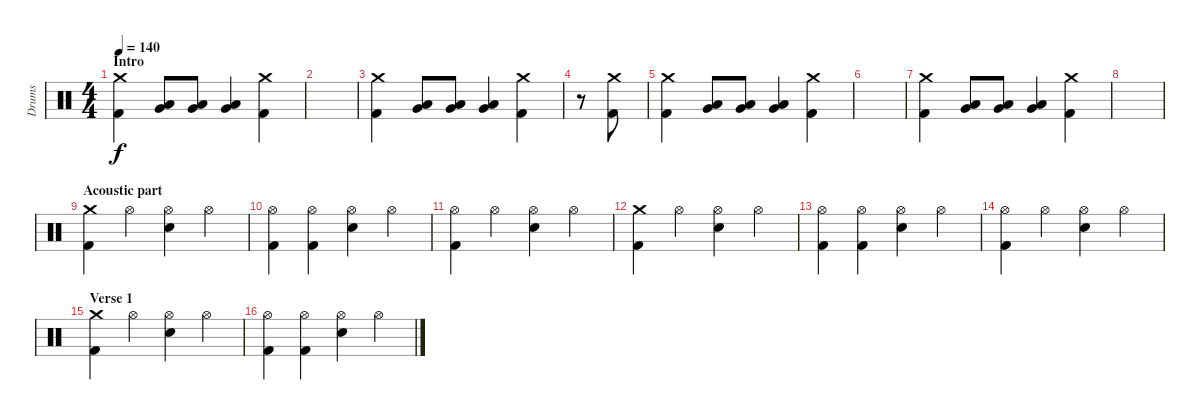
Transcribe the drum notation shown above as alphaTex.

\track ("Drums" "Drums") {instrument percussion}
\staff {score}
\articulation defaults
\ts (4 4)
\section ("" "Intro")
\tempo 140
\clef neutral
\ks c
("Crash medium (hit)" "Kick (hit) 2").4{dy f} ("Low Tom (hit)" "Very Low Tom (hit)").8 ("Low Tom (hit)" "Very Low Tom (hit)").8 ("Low Tom (hit)" "Very Low Tom (hit)").4 ("Crash medium (hit)" "Kick (hit) 2").4 |
|
("Crash medium (hit)" "Kick (hit) 2").4 ("Low Tom (hit)" "Very Low Tom (hit)").8 ("Low Tom (hit)" "Very Low Tom (hit)").8 ("Low Tom (hit)" "Very Low Tom (hit)").4 ("Crash medium (hit)" "Kick (hit) 2").4 |
r.8 ("Crash medium (hit)" "Kick (hit) 2").8 |
("Crash medium (hit)" "Kick (hit) 2").4 ("Low Tom (hit)" "Very Low Tom (hit)").8 ("Low Tom (hit)" "Very Low Tom (hit)").8 ("Low Tom (hit)" "Very Low Tom (hit)").4 ("Crash medium (hit)" "Kick (hit) 2").4 |
|
("Crash medium (hit)" "Kick (hit) 2").4 ("Low Tom (hit)" "Very Low Tom (hit)").8 ("Low Tom (hit)" "Very Low Tom (hit)").8 ("Low Tom (hit)" "Very Low Tom (hit)").4 ("Crash medium (hit)" "Kick (hit) 2").4 |
|
\section ("" "Acoustic part")
("Crash medium (hit)" "Kick (hit) 2").4 "Hi-Hat (open)".4 ("Hi-Hat (open)" "Electric Snare (hit)").4 "Hi-Hat (open)".4 |
("Hi-Hat (open)" "Kick (hit) 2").4 ("Hi-Hat (open)" "Kick (hit) 2").4 ("Hi-Hat (open)" "Electric Snare (hit)").4 "Hi-Hat (open)".4 |
("Hi-Hat (open)" "Kick (hit) 2").4 "Hi-Hat (open)".4 ("Hi-Hat (open)" "Electric Snare (hit)").4 "Hi-Hat (open)".4 |
("Crash medium (hit)" "Kick (hit) 2").4 "Hi-Hat (open)".4 ("Hi-Hat (open)" "Electric Snare (hit)").4 "Hi-Hat (open)".4 |
("Hi-Hat (open)" "Kick (hit) 2").4 ("Hi-Hat (open)" "Kick (hit) 2").4 ("Hi-Hat (open)" "Electric Snare (hit)").4 "Hi-Hat (open)".4 |
("Hi-Hat (open)" "Kick (hit) 2").4 "Hi-Hat (open)".4 ("Hi-Hat (open)" "Electric Snare (hit)").4 "Hi-Hat (open)".4 |
\section ("" "Verse 1")
("Crash medium (hit)" "Kick (hit) 2").4 "Hi-Hat (open)".4 ("Hi-Hat (open)" "Electric Snare (hit)").4 "Hi-Hat (open)".4 |
("Hi-Hat (open)" "Kick (hit) 2").4 ("Hi-Hat (open)" "Kick (hit) 2").4 ("Hi-Hat (open)" "Electric Snare (hit)").4 "Hi-Hat (open)".4
